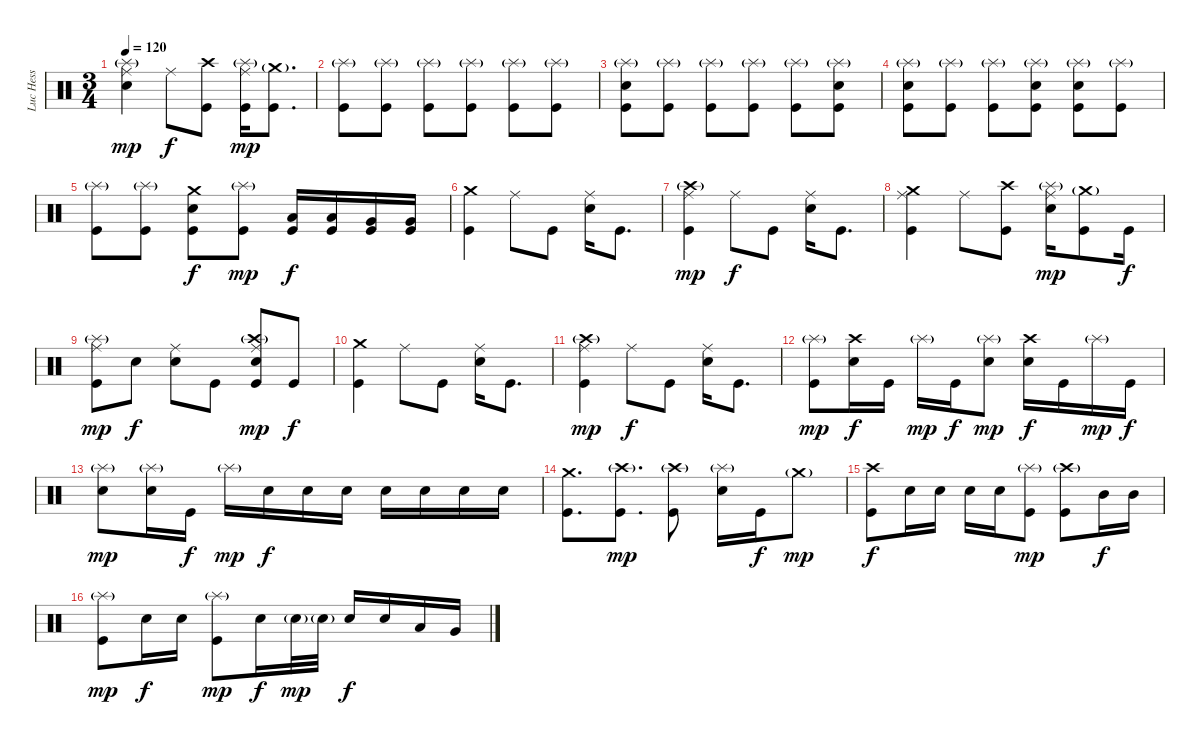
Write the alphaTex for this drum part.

\track ("Luc Hess" "Luc Hess") {instrument percussion}
\staff {score}
\articulation defaults
\ts (3 4)
\tempo 120
\clef neutral
\ks c
("Splash (hit)"{g} "Snare (hit) 2" "Ride (middle)").4{dy mp} "Ride (middle)".8{dy f} ("Crash high (hit)" "Kick (hit)").8 ("Splash (hit)"{g} "Ride (middle)" "Kick (hit)").16{dy mp} ("Crash medium (hit)"{g} "Kick (hit)").8{d} |
("Splash (hit)"{g} "Kick (hit)").8 ("Splash (hit)"{g} "Kick (hit)").8 ("Splash (hit)"{g} "Kick (hit)").8 ("Splash (hit)"{g} "Kick (hit)").8 ("Splash (hit)"{g} "Kick (hit)").8 ("Splash (hit)"{g} "Kick (hit)").8 |
("Snare (hit) 2" "Splash (hit)"{g} "Kick (hit)").8 ("Splash (hit)"{g} "Kick (hit)").8 ("Splash (hit)"{g} "Kick (hit)").8 ("Splash (hit)"{g} "Kick (hit)").8 ("Splash (hit)"{g} "Kick (hit)").8 ("Snare (hit) 2" "Splash (hit)"{g} "Kick (hit)").8 |
("Snare (hit) 2" "Splash (hit)"{g} "Kick (hit)").8 ("Splash (hit)"{g} "Kick (hit)").8 ("Splash (hit)"{g} "Kick (hit)").8 ("Snare (hit) 2" "Splash (hit)"{g} "Kick (hit)").8 ("Snare (hit) 2" "Splash (hit)"{g} "Kick (hit)").8 ("Splash (hit)"{g} "Kick (hit)").8 |
("Splash (hit)"{g} "Kick (hit)").8 ("Splash (hit)"{g} "Kick (hit)").8 ("Snare (hit) 2" "Crash medium (hit)" "Kick (hit)").8{dy f} ("Splash (hit)"{g} "Kick (hit)").8{dy mp} ("Low Tom (hit)" "Kick (hit)").16{dy f} ("Low Tom (hit)" "Kick (hit)").16 ("Very Low Tom (hit)" "Kick (hit)").16 ("Very Low Tom (hit)" "Kick (hit)").16 |
("Crash medium (hit)" "Kick (hit)").4 "Ride (middle)".8 "Kick (hit)".8 ("Snare (hit) 2" "Ride (middle)").16 "Kick (hit)".8{d} |
("Crash high (hit)"{g} "Ride (middle)" "Kick (hit)").4{dy mp} "Ride (middle)".8{dy f} "Kick (hit)".8 ("Snare (hit) 2" "Ride (middle)").16 "Kick (hit)".8{d} |
("Crash medium (hit)" "Ride (middle)" "Kick (hit)").4 "Ride (middle)".8 ("Crash high (hit)" "Kick (hit)").8 ("Snare (hit) 2" "Splash (hit)"{g} "Ride (middle)").16{dy mp} ("Crash medium (hit)"{g} "Kick (hit)").8 "Kick (hit)".16{dy f} |
("Splash (hit)"{g} "Ride (middle)" "Kick (hit)").8{dy mp} "Snare (hit) 2".8{dy f} ("Snare (hit) 2" "Ride (middle)").8 "Kick (hit)".8 ("Snare (hit) 2" "Crash high (hit)"{g} "Ride (middle)" "Kick (hit)").8{dy mp} "Kick (hit)".8{dy f} |
("Crash medium (hit)" "Kick (hit)").4 "Ride (middle)".8 "Kick (hit)".8 ("Snare (hit) 2" "Ride (middle)").16 "Kick (hit)".8{d} |
("Crash high (hit)"{g} "Ride (middle)" "Kick (hit)").4{dy mp} "Ride (middle)".8{dy f} "Kick (hit)".8 ("Snare (hit) 2" "Ride (middle)").16 "Kick (hit)".8{d} |
("Splash (hit)"{g} "Kick (hit)").8{dy mp} ("Snare (hit) 2" "Crash high (hit)").16{dy f} "Kick (hit)".16 "Splash (hit)"{g}.16{dy mp} "Kick (hit)".16{dy f} ("Snare (hit) 2" "Splash (hit)"{g}).8{dy mp} ("Snare (hit) 2" "Crash high (hit)").16{dy f} "Kick (hit)".16 "Splash (hit)"{g}.16{dy mp} "Kick (hit)".16{dy f} |
("Snare (hit) 2" "Splash (hit)"{g}).8{dy mp} ("Snare (hit) 2" "Splash (hit)"{g}).16 "Kick (hit)".16{dy f} "Splash (hit)"{g}.16{dy mp} "Snare (hit) 2".16{dy f} "Snare (hit) 2".16 "Snare (hit) 2".16 "Snare (hit) 2".16 "Snare (hit) 2".16 "Snare (hit) 2".16 "Snare (hit) 2".16 |
("Crash medium (hit)" "Kick (hit)").8{d} ("Crash high (hit)"{g} "Kick (hit)").8{d dy mp} ("Crash high (hit)"{g} "Kick (hit)").8 ("Snare (hit) 2" "Splash (hit)"{g}).16 "Kick (hit)".16{dy f} "Crash medium (hit)"{g}.8{dy mp} |
("Crash high (hit)" "Kick (hit)").8{dy f} "Snare (hit) 2".16 "Snare (hit) 2".16 "Snare (hit) 2".16 "Snare (hit) 2".16 ("Splash (hit)"{g} "Kick (hit)").8{dy mp} ("Crash high (hit)"{g} "Kick (hit)").8 "Mid Tom (hit)".16{dy f} "Mid Tom (hit)".16 |
("Splash (hit)"{g} "Kick (hit)").8{dy mp} "Snare (hit) 2".16{dy f} "Snare (hit) 2".16 ("Splash (hit)"{g} "Kick (hit)").8{dy mp} "Snare (hit) 2".16{dy f} "Snare (hit) 2"{g}.32{dy mp} "Snare (hit) 2"{g}.32 "Snare (hit) 2".16{dy f} "Snare (hit) 2".16 "Low Tom (hit)".16 "Very Low Tom (hit)".16
